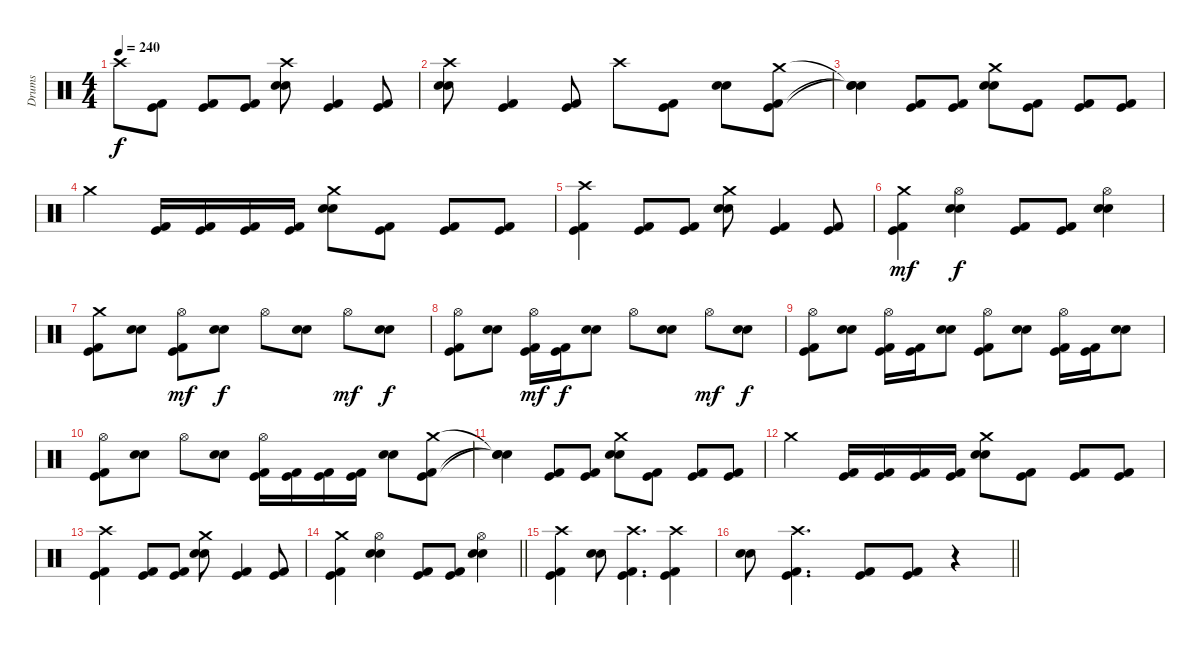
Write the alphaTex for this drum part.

\track ("Drums" "Drums") {instrument percussion bank 10}
\staff {score}
\articulation defaults
\ts (4 4)
\tempo 240
\clef neutral
\ks c "Crash high (hit)".8{dy f}
("Kick (hit) 2" "Kick (hit)").8 ("Kick (hit) 2" "Kick (hit)").8 ("Kick (hit) 2" "Kick (hit)").8 ("Crash high (hit)" "Electric Snare (hit)" "Electric Snare (hit)").8 ("Kick (hit) 2" "Kick (hit)").4 ("Kick (hit) 2" "Kick (hit)").8 |
("Crash high (hit)" "Electric Snare (hit)" "Electric Snare (hit)").8 ("Kick (hit) 2" "Kick (hit)").4 ("Kick (hit) 2" "Kick (hit)").8 "Crash high (hit)".8 ("Kick (hit) 2" "Kick (hit)").8 ("Electric Snare (hit)" "Electric Snare (hit)").8 ("Crash medium (hit)" "Kick (hit) 2" "Kick (hit)").8 |
("Snare (hit)"{t} "Snare (hit)"{t} "Snare (hit)"{t}).4 ("Kick (hit) 2" "Kick (hit)").8 ("Kick (hit) 2" "Kick (hit)").8 ("Crash medium (hit)" "Electric Snare (hit)" "Electric Snare (hit)").8 ("Kick (hit) 2" "Kick (hit)").8 ("Kick (hit) 2" "Kick (hit)").8 ("Kick (hit) 2" "Kick (hit)").8 |
"Crash medium (hit)".4 ("Kick (hit) 2" "Kick (hit)").16 ("Kick (hit) 2" "Kick (hit)").16 ("Kick (hit) 2" "Kick (hit)").16 ("Kick (hit) 2" "Kick (hit)").16 ("Crash medium (hit)" "Electric Snare (hit)" "Electric Snare (hit)").8 ("Kick (hit) 2" "Kick (hit)").8 ("Kick (hit) 2" "Kick (hit)").8 ("Kick (hit) 2" "Kick (hit)").8 |
("Crash high (hit)" "Kick (hit) 2" "Kick (hit)").4 ("Kick (hit) 2" "Kick (hit)").8 ("Kick (hit) 2" "Kick (hit)").8 ("Crash medium (hit)" "Electric Snare (hit)" "Electric Snare (hit)").8 ("Kick (hit) 2" "Kick (hit)").4 ("Kick (hit) 2" "Kick (hit)").8 |
("Crash medium (hit)" "Kick (hit) 2" "Kick (hit)").4{dy mf} ("Hi-Hat (open)" "Electric Snare (hit)" "Electric Snare (hit)").4{dy f} ("Kick (hit) 2" "Kick (hit)").8 ("Kick (hit) 2" "Kick (hit)").8 ("Hi-Hat (open)" "Electric Snare (hit)" "Electric Snare (hit)").4 |
("Crash medium (hit)" "Kick (hit) 2" "Kick (hit)").8 ("Electric Snare (hit)" "Electric Snare (hit)").8 ("Hi-Hat (open)" "Kick (hit) 2" "Kick (hit)").8{dy mf} ("Electric Snare (hit)" "Electric Snare (hit)").8{dy f} "Hi-Hat (open)".8 ("Electric Snare (hit)" "Electric Snare (hit)").8 "Hi-Hat (open)".8{dy mf} ("Electric Snare (hit)" "Electric Snare (hit)").8{dy f} |
("Hi-Hat (open)" "Kick (hit) 2" "Kick (hit)").8 ("Electric Snare (hit)" "Electric Snare (hit)").8 ("Hi-Hat (open)" "Kick (hit) 2" "Kick (hit)").16{dy mf} ("Kick (hit) 2" "Kick (hit)").16{dy f} ("Electric Snare (hit)" "Electric Snare (hit)").8 "Hi-Hat (open)".8 ("Electric Snare (hit)" "Electric Snare (hit)").8 "Hi-Hat (open)".8{dy mf} ("Electric Snare (hit)" "Electric Snare (hit)").8{dy f} |
("Hi-Hat (open)" "Kick (hit) 2" "Kick (hit)").8 ("Electric Snare (hit)" "Electric Snare (hit)").8 ("Hi-Hat (open)" "Kick (hit) 2" "Kick (hit)").16 ("Kick (hit) 2" "Kick (hit)").16 ("Electric Snare (hit)" "Electric Snare (hit)").8 ("Hi-Hat (open)" "Kick (hit) 2" "Kick (hit)").8 ("Electric Snare (hit)" "Electric Snare (hit)").8 ("Hi-Hat (open)" "Kick (hit) 2" "Kick (hit)").16 ("Kick (hit) 2" "Kick (hit)").16 ("Electric Snare (hit)" "Electric Snare (hit)").8 |
("Hi-Hat (open)" "Kick (hit) 2" "Kick (hit)").8 ("Electric Snare (hit)" "Electric Snare (hit)").8 "Hi-Hat (open)".8 ("Electric Snare (hit)" "Electric Snare (hit)").8 ("Hi-Hat (open)" "Kick (hit) 2" "Kick (hit)").16 ("Kick (hit) 2" "Kick (hit)").16 ("Kick (hit) 2" "Kick (hit)").16 ("Kick (hit) 2" "Kick (hit)").16 ("Electric Snare (hit)" "Electric Snare (hit)").8 ("Crash medium (hit)" "Kick (hit) 2" "Kick (hit)").8 |
("Snare (hit)"{t} "Snare (hit)"{t} "Snare (hit)"{t}).4 ("Kick (hit) 2" "Kick (hit)").8 ("Kick (hit) 2" "Kick (hit)").8 ("Crash medium (hit)" "Electric Snare (hit)" "Electric Snare (hit)").8 ("Kick (hit) 2" "Kick (hit)").8 ("Kick (hit) 2" "Kick (hit)").8 ("Kick (hit) 2" "Kick (hit)").8 |
"Crash medium (hit)".4 ("Kick (hit) 2" "Kick (hit)").16 ("Kick (hit) 2" "Kick (hit)").16 ("Kick (hit) 2" "Kick (hit)").16 ("Kick (hit) 2" "Kick (hit)").16 ("Crash medium (hit)" "Electric Snare (hit)" "Electric Snare (hit)").8 ("Kick (hit) 2" "Kick (hit)").8 ("Kick (hit) 2" "Kick (hit)").8 ("Kick (hit) 2" "Kick (hit)").8 |
("Crash high (hit)" "Kick (hit) 2" "Kick (hit)").4 ("Kick (hit) 2" "Kick (hit)").8 ("Kick (hit) 2" "Kick (hit)").8 ("Crash medium (hit)" "Electric Snare (hit)" "Electric Snare (hit)").8 ("Kick (hit) 2" "Kick (hit)").4 ("Kick (hit) 2" "Kick (hit)").8 |
\barLineRight lightlight
("Crash medium (hit)" "Kick (hit) 2" "Kick (hit)").4 ("Hi-Hat (open)" "Electric Snare (hit)" "Electric Snare (hit)").4 ("Kick (hit) 2" "Kick (hit)").8 ("Kick (hit) 2" "Kick (hit)").8 ("Hi-Hat (open)" "Electric Snare (hit)" "Electric Snare (hit)").4 |
("Crash high (hit)" "Kick (hit) 2" "Kick (hit)").4 ("Electric Snare (hit)" "Electric Snare (hit)").8 ("Crash high (hit)" "Kick (hit) 2" "Kick (hit)").4{d} ("Crash high (hit)" "Kick (hit) 2" "Kick (hit)").4 |
\barLineRight lightlight
("Electric Snare (hit)" "Electric Snare (hit)").8 ("Crash high (hit)" "Kick (hit) 2" "Kick (hit)").4{d} ("Kick (hit) 2" "Kick (hit)").8 ("Kick (hit) 2" "Kick (hit)").8 r.4
